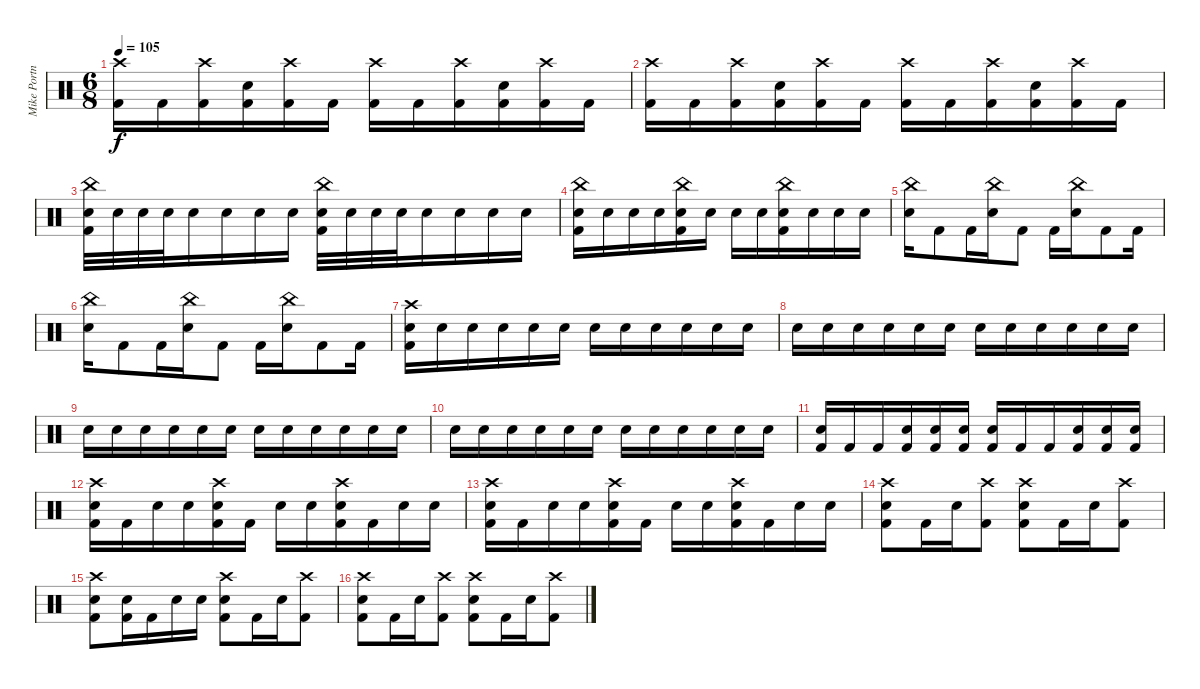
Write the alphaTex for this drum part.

\track ("Mike Portnoy" "Mike Portn") {instrument percussion}
\staff {score}
\articulation defaults
\ts (6 8)
\tempo 105
\clef neutral
\ks c
("Crash high (hit)" "Kick (hit) 2").16{dy f} "Kick (hit) 2".16 ("Crash high (hit)" "Kick (hit) 2").16 ("Electric Snare (hit)" "Kick (hit) 2").16 ("Crash high (hit)" "Kick (hit) 2").16 "Kick (hit) 2".16 ("Crash high (hit)" "Kick (hit) 2").16 "Kick (hit) 2".16 ("Crash high (hit)" "Kick (hit) 2").16 ("Electric Snare (hit)" "Kick (hit) 2").16 ("Crash high (hit)" "Kick (hit) 2").16 "Kick (hit) 2".16 |
("Crash high (hit)" "Kick (hit) 2").16 "Kick (hit) 2".16 ("Crash high (hit)" "Kick (hit) 2").16 ("Electric Snare (hit)" "Kick (hit) 2").16 ("Crash high (hit)" "Kick (hit) 2").16 "Kick (hit) 2".16 ("Crash high (hit)" "Kick (hit) 2").16 "Kick (hit) 2".16 ("Crash high (hit)" "Kick (hit) 2").16 ("Electric Snare (hit)" "Kick (hit) 2").16 ("Crash high (hit)" "Kick (hit) 2").16 "Kick (hit) 2".16 |
("China (hit)" "Electric Snare (hit)" "Kick (hit) 2").32 "Electric Snare (hit)".32 "Electric Snare (hit)".32 "Electric Snare (hit)".32 "Electric Snare (hit)".16 "Electric Snare (hit)".16 "Electric Snare (hit)".16 "Electric Snare (hit)".16 ("China (hit)" "Electric Snare (hit)" "Kick (hit) 2").32 "Electric Snare (hit)".32 "Electric Snare (hit)".32 "Electric Snare (hit)".32 "Electric Snare (hit)".16 "Electric Snare (hit)".16 "Electric Snare (hit)".16 "Electric Snare (hit)".16 |
("China (hit)" "Electric Snare (hit)" "Kick (hit) 2").16 "Electric Snare (hit)".16 "Electric Snare (hit)".16 "Electric Snare (hit)".16 ("China (hit)" "Electric Snare (hit)" "Kick (hit) 2").16 "Electric Snare (hit)".16 "Electric Snare (hit)".16 "Electric Snare (hit)".16 ("China (hit)" "Electric Snare (hit)" "Kick (hit) 2").16 "Electric Snare (hit)".16 "Electric Snare (hit)".16 "Electric Snare (hit)".16 |
("China (hit)" "Electric Snare (hit)").16 "Kick (hit) 2".8 "Kick (hit) 2".16 ("China (hit)" "Electric Snare (hit)").16 "Kick (hit) 2".8 "Kick (hit) 2".16 ("China (hit)" "Electric Snare (hit)").16 "Kick (hit) 2".8 "Kick (hit) 2".16 |
("China (hit)" "Electric Snare (hit)").16 "Kick (hit) 2".8 "Kick (hit) 2".16 ("China (hit)" "Electric Snare (hit)").16 "Kick (hit) 2".8 "Kick (hit) 2".16 ("China (hit)" "Electric Snare (hit)").16 "Kick (hit) 2".8 "Kick (hit) 2".16 |
("Crash high (hit)" "Electric Snare (hit)" "Kick (hit) 2").16 "Electric Snare (hit)".16 "Electric Snare (hit)".16 "Electric Snare (hit)".16 "Electric Snare (hit)".16 "Electric Snare (hit)".16 "Electric Snare (hit)".16 "Electric Snare (hit)".16 "Electric Snare (hit)".16 "Electric Snare (hit)".16 "Electric Snare (hit)".16 "Electric Snare (hit)".16 |
"Electric Snare (hit)".16 "Electric Snare (hit)".16 "Electric Snare (hit)".16 "Electric Snare (hit)".16 "Electric Snare (hit)".16 "Electric Snare (hit)".16 "Electric Snare (hit)".16 "Electric Snare (hit)".16 "Electric Snare (hit)".16 "Electric Snare (hit)".16 "Electric Snare (hit)".16 "Electric Snare (hit)".16 |
"Electric Snare (hit)".16 "Electric Snare (hit)".16 "Electric Snare (hit)".16 "Electric Snare (hit)".16 "Electric Snare (hit)".16 "Electric Snare (hit)".16 "Electric Snare (hit)".16 "Electric Snare (hit)".16 "Electric Snare (hit)".16 "Electric Snare (hit)".16 "Electric Snare (hit)".16 "Electric Snare (hit)".16 |
"Electric Snare (hit)".16 "Electric Snare (hit)".16 "Electric Snare (hit)".16 "Electric Snare (hit)".16 "Electric Snare (hit)".16 "Electric Snare (hit)".16 "Electric Snare (hit)".16 "Electric Snare (hit)".16 "Electric Snare (hit)".16 "Electric Snare (hit)".16 "Electric Snare (hit)".16 "Electric Snare (hit)".16 |
("Electric Snare (hit)" "Kick (hit) 2").16 "Kick (hit) 2".16 "Kick (hit) 2".16 ("Electric Snare (hit)" "Kick (hit) 2").16 ("Electric Snare (hit)" "Kick (hit) 2").16 ("Electric Snare (hit)" "Kick (hit) 2").16 ("Electric Snare (hit)" "Kick (hit) 2").16 "Kick (hit) 2".16 "Kick (hit) 2".16 ("Electric Snare (hit)" "Kick (hit) 2").16 ("Electric Snare (hit)" "Kick (hit) 2").16 ("Electric Snare (hit)" "Kick (hit) 2").16 |
("Crash high (hit)" "Electric Snare (hit)" "Kick (hit) 2").16 "Kick (hit) 2".16 "Electric Snare (hit)".16 "Electric Snare (hit)".16 ("Crash high (hit)" "Electric Snare (hit)" "Kick (hit) 2").16 "Kick (hit) 2".16 "Electric Snare (hit)".16 "Electric Snare (hit)".16 ("Crash high (hit)" "Electric Snare (hit)" "Kick (hit) 2").16 "Kick (hit) 2".16 "Electric Snare (hit)".16 "Electric Snare (hit)".16 |
("Crash high (hit)" "Electric Snare (hit)" "Kick (hit) 2").16 "Kick (hit) 2".16 "Electric Snare (hit)".16 "Electric Snare (hit)".16 ("Crash high (hit)" "Electric Snare (hit)" "Kick (hit) 2").16 "Kick (hit) 2".16 "Electric Snare (hit)".16 "Electric Snare (hit)".16 ("Crash high (hit)" "Electric Snare (hit)" "Kick (hit) 2").16 "Kick (hit) 2".16 "Electric Snare (hit)".16 "Electric Snare (hit)".16 |
("Crash high (hit)" "Electric Snare (hit)" "Kick (hit) 2").8 "Kick (hit) 2".16 "Electric Snare (hit)".16 ("Crash high (hit)" "Kick (hit) 2").8 ("Crash high (hit)" "Electric Snare (hit)" "Kick (hit) 2").8 "Kick (hit) 2".16 "Electric Snare (hit)".16 ("Crash high (hit)" "Kick (hit) 2").8 |
("Crash high (hit)" "Electric Snare (hit)" "Kick (hit) 2").8 ("Electric Snare (hit)" "Kick (hit) 2").16 "Kick (hit) 2".16 "Electric Snare (hit)".16 "Electric Snare (hit)".16 ("Crash high (hit)" "Electric Snare (hit)" "Kick (hit) 2").8 "Kick (hit) 2".16 "Electric Snare (hit)".16 ("Crash high (hit)" "Kick (hit) 2").8 |
("Crash high (hit)" "Electric Snare (hit)" "Kick (hit) 2").8 "Kick (hit) 2".16 "Electric Snare (hit)".16 ("Crash high (hit)" "Kick (hit) 2").8 ("Crash high (hit)" "Electric Snare (hit)" "Kick (hit) 2").8 "Kick (hit) 2".16 "Electric Snare (hit)".16 ("Crash high (hit)" "Kick (hit) 2").8
